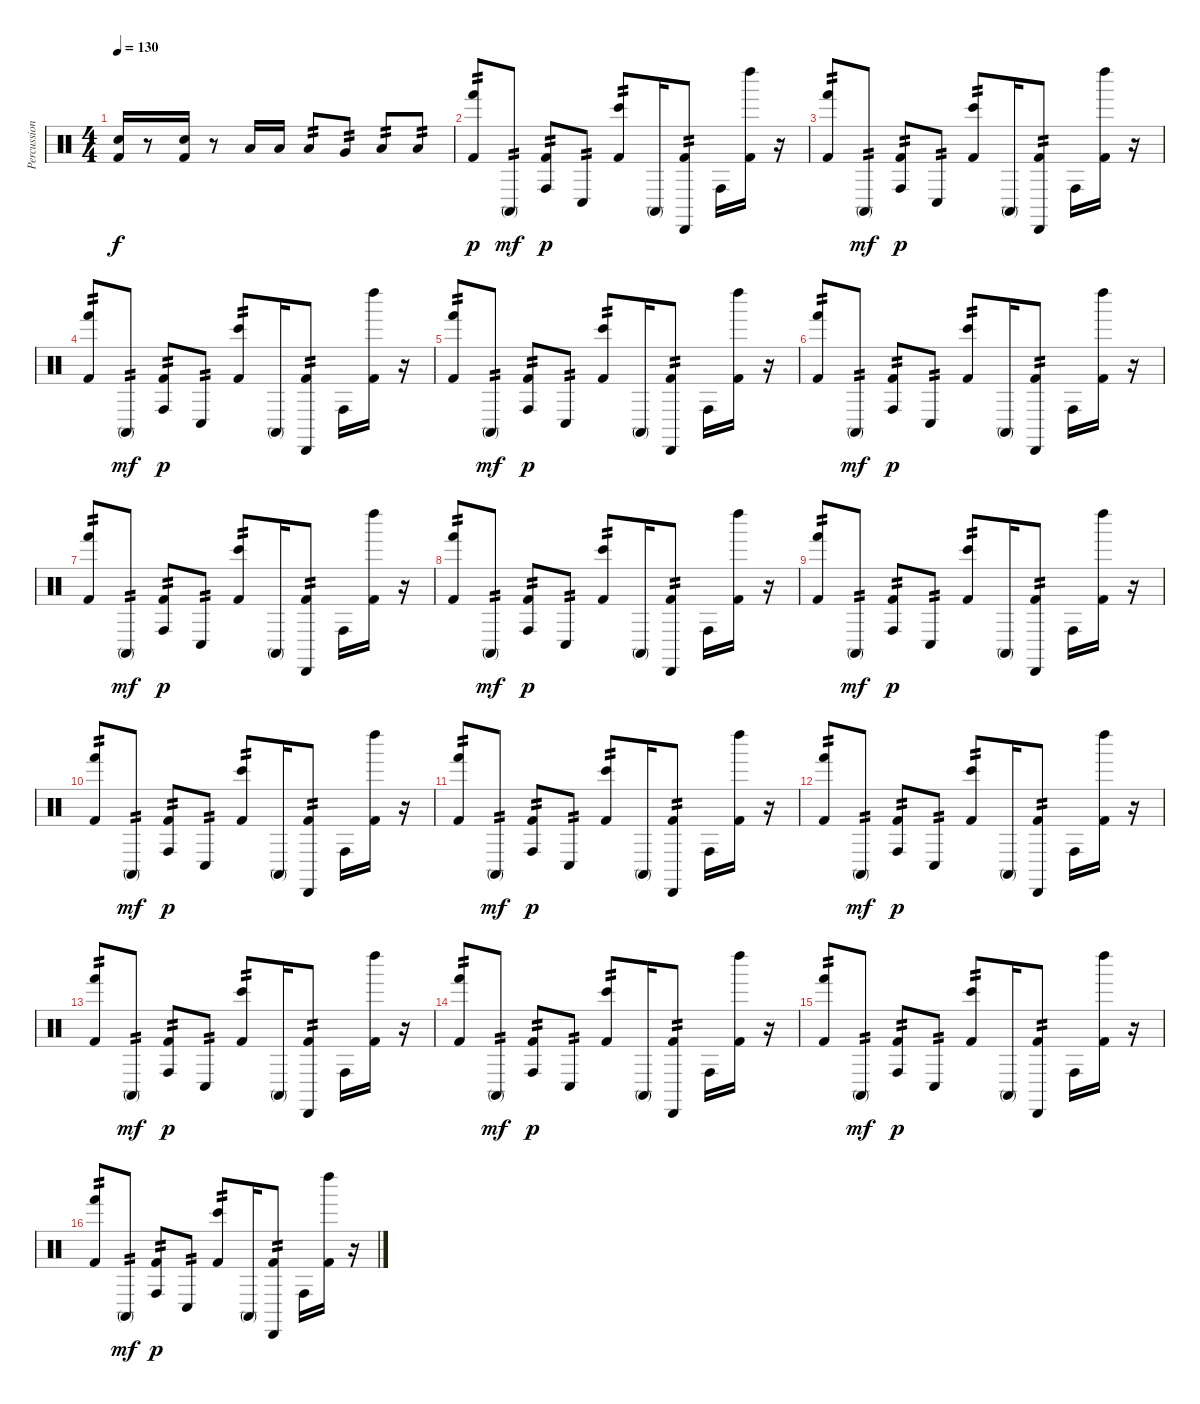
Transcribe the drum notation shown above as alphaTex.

\track ("Percussion" "Percussion") {instrument percussion}
\staff {score}
\articulation defaults
\ts (4 4)
\tempo 130
\clef neutral
\ks c
("Snare (hit) 2" "Kick (hit) 2").16{dy f} r.8 ("Snare (hit) 2" "Kick (hit) 2").16 r.8 "Low Tom (hit)".16 "Low Tom (hit)".16 "Low Tom (hit)".8{tp 2} "Very Low Tom (hit)".8{tp 2} "Low Floor Tom (hit)".8{tp 2} "Low Floor Tom (hit)".8{tp 2} |
("Kick (hit) 2" "Hand (hit)").8{tp 2 dy p} "Conga high (mute)".8{tp 2 dy mf} ("Kick (hit) 2" "Conga high (hit)").8{tp 2 dy p} "Conga low (hit)".8{tp 2} ("Kick (hit) 2" "Bongo High (hit)").8{tp 2} "Conga high (mute)".16 ("Kick (hit) 2" "Cabasa (hit)").8{tp 2} "Conga high (hit)".16 ("Kick (hit) 2" "Left Maraca (hit)").16 r.16 |
("Kick (hit) 2" "Hand (hit)").8{tp 2} "Conga high (mute)".8{tp 2 dy mf} ("Kick (hit) 2" "Conga high (hit)").8{tp 2 dy p} "Conga low (hit)".8{tp 2} ("Kick (hit) 2" "Bongo High (hit)").8{tp 2} "Conga high (mute)".16 ("Kick (hit) 2" "Cabasa (hit)").8{tp 2} "Conga high (hit)".16 ("Kick (hit) 2" "Left Maraca (hit)").16 r.16 |
("Kick (hit) 2" "Hand (hit)").8{tp 2} "Conga high (mute)".8{tp 2 dy mf} ("Kick (hit) 2" "Conga high (hit)").8{tp 2 dy p} "Conga low (hit)".8{tp 2} ("Kick (hit) 2" "Bongo High (hit)").8{tp 2} "Conga high (mute)".16 ("Kick (hit) 2" "Cabasa (hit)").8{tp 2} "Conga high (hit)".16 ("Kick (hit) 2" "Left Maraca (hit)").16 r.16 |
("Kick (hit) 2" "Hand (hit)").8{tp 2} "Conga high (mute)".8{tp 2 dy mf} ("Kick (hit) 2" "Conga high (hit)").8{tp 2 dy p} "Conga low (hit)".8{tp 2} ("Kick (hit) 2" "Bongo High (hit)").8{tp 2} "Conga high (mute)".16 ("Kick (hit) 2" "Cabasa (hit)").8{tp 2} "Conga high (hit)".16 ("Kick (hit) 2" "Left Maraca (hit)").16 r.16 |
("Kick (hit) 2" "Hand (hit)").8{tp 2} "Conga high (mute)".8{tp 2 dy mf} ("Kick (hit) 2" "Conga high (hit)").8{tp 2 dy p} "Conga low (hit)".8{tp 2} ("Kick (hit) 2" "Bongo High (hit)").8{tp 2} "Conga high (mute)".16 ("Kick (hit) 2" "Cabasa (hit)").8{tp 2} "Conga high (hit)".16 ("Kick (hit) 2" "Left Maraca (hit)").16 r.16 |
("Kick (hit) 2" "Hand (hit)").8{tp 2} "Conga high (mute)".8{tp 2 dy mf} ("Kick (hit) 2" "Conga high (hit)").8{tp 2 dy p} "Conga low (hit)".8{tp 2} ("Kick (hit) 2" "Bongo High (hit)").8{tp 2} "Conga high (mute)".16 ("Kick (hit) 2" "Cabasa (hit)").8{tp 2} "Conga high (hit)".16 ("Kick (hit) 2" "Left Maraca (hit)").16 r.16 |
("Kick (hit) 2" "Hand (hit)").8{tp 2} "Conga high (mute)".8{tp 2 dy mf} ("Kick (hit) 2" "Conga high (hit)").8{tp 2 dy p} "Conga low (hit)".8{tp 2} ("Kick (hit) 2" "Bongo High (hit)").8{tp 2} "Conga high (mute)".16 ("Kick (hit) 2" "Cabasa (hit)").8{tp 2} "Conga high (hit)".16 ("Kick (hit) 2" "Left Maraca (hit)").16 r.16 |
("Kick (hit) 2" "Hand (hit)").8{tp 2} "Conga high (mute)".8{tp 2 dy mf} ("Kick (hit) 2" "Conga high (hit)").8{tp 2 dy p} "Conga low (hit)".8{tp 2} ("Kick (hit) 2" "Bongo High (hit)").8{tp 2} "Conga high (mute)".16 ("Kick (hit) 2" "Cabasa (hit)").8{tp 2} "Conga high (hit)".16 ("Kick (hit) 2" "Left Maraca (hit)").16 r.16 |
("Kick (hit) 2" "Hand (hit)").8{tp 2} "Conga high (mute)".8{tp 2 dy mf} ("Kick (hit) 2" "Conga high (hit)").8{tp 2 dy p} "Conga low (hit)".8{tp 2} ("Kick (hit) 2" "Bongo High (hit)").8{tp 2} "Conga high (mute)".16 ("Kick (hit) 2" "Cabasa (hit)").8{tp 2} "Conga high (hit)".16 ("Kick (hit) 2" "Left Maraca (hit)").16 r.16 |
("Kick (hit) 2" "Hand (hit)").8{tp 2} "Conga high (mute)".8{tp 2 dy mf} ("Kick (hit) 2" "Conga high (hit)").8{tp 2 dy p} "Conga low (hit)".8{tp 2} ("Kick (hit) 2" "Bongo High (hit)").8{tp 2} "Conga high (mute)".16 ("Kick (hit) 2" "Cabasa (hit)").8{tp 2} "Conga high (hit)".16 ("Kick (hit) 2" "Left Maraca (hit)").16 r.16 |
("Kick (hit) 2" "Hand (hit)").8{tp 2} "Conga high (mute)".8{tp 2 dy mf} ("Kick (hit) 2" "Conga high (hit)").8{tp 2 dy p} "Conga low (hit)".8{tp 2} ("Kick (hit) 2" "Bongo High (hit)").8{tp 2} "Conga high (mute)".16 ("Kick (hit) 2" "Cabasa (hit)").8{tp 2} "Conga high (hit)".16 ("Kick (hit) 2" "Left Maraca (hit)").16 r.16 |
("Kick (hit) 2" "Hand (hit)").8{tp 2} "Conga high (mute)".8{tp 2 dy mf} ("Kick (hit) 2" "Conga high (hit)").8{tp 2 dy p} "Conga low (hit)".8{tp 2} ("Kick (hit) 2" "Bongo High (hit)").8{tp 2} "Conga high (mute)".16 ("Kick (hit) 2" "Cabasa (hit)").8{tp 2} "Conga high (hit)".16 ("Kick (hit) 2" "Left Maraca (hit)").16 r.16 |
("Kick (hit) 2" "Hand (hit)").8{tp 2} "Conga high (mute)".8{tp 2 dy mf} ("Kick (hit) 2" "Conga high (hit)").8{tp 2 dy p} "Conga low (hit)".8{tp 2} ("Kick (hit) 2" "Bongo High (hit)").8{tp 2} "Conga high (mute)".16 ("Kick (hit) 2" "Cabasa (hit)").8{tp 2} "Conga high (hit)".16 ("Kick (hit) 2" "Left Maraca (hit)").16 r.16 |
("Kick (hit) 2" "Hand (hit)").8{tp 2} "Conga high (mute)".8{tp 2 dy mf} ("Kick (hit) 2" "Conga high (hit)").8{tp 2 dy p} "Conga low (hit)".8{tp 2} ("Kick (hit) 2" "Bongo High (hit)").8{tp 2} "Conga high (mute)".16 ("Kick (hit) 2" "Cabasa (hit)").8{tp 2} "Conga high (hit)".16 ("Kick (hit) 2" "Left Maraca (hit)").16 r.16 |
("Kick (hit) 2" "Hand (hit)").8{tp 2} "Conga high (mute)".8{tp 2 dy mf} ("Kick (hit) 2" "Conga high (hit)").8{tp 2 dy p} "Conga low (hit)".8{tp 2} ("Kick (hit) 2" "Bongo High (hit)").8{tp 2} "Conga high (mute)".16 ("Kick (hit) 2" "Cabasa (hit)").8{tp 2} "Conga high (hit)".16 ("Kick (hit) 2" "Left Maraca (hit)").16 r.16
